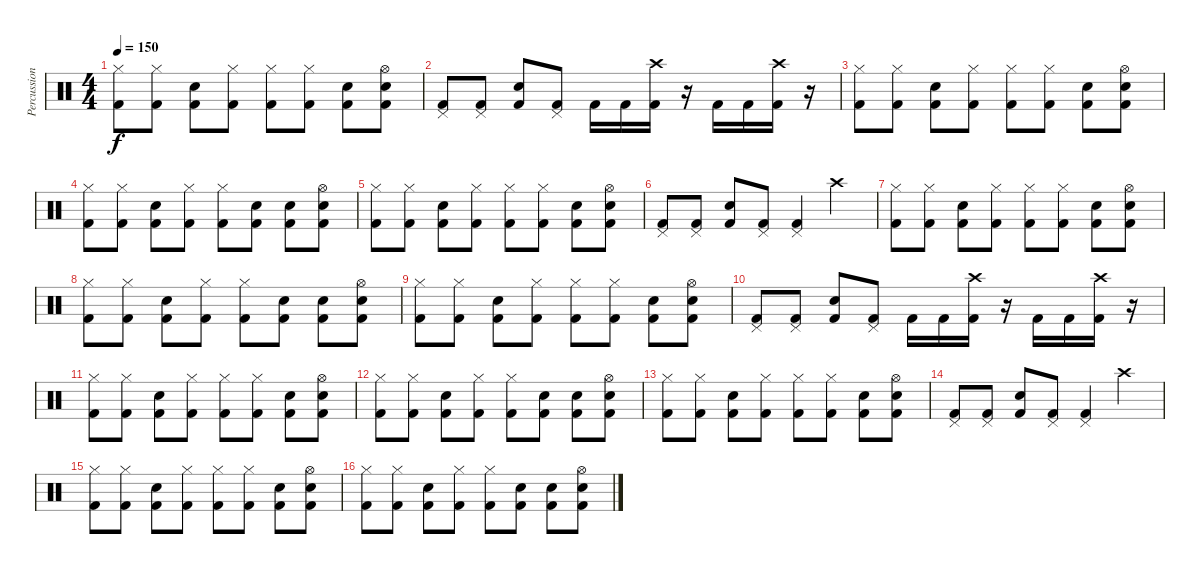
\track ("Percussion" "Percussion") {instrument percussion}
\staff {score}
\articulation defaults
\ts (4 4)
\tempo 150
\clef neutral
\ks c
("Hi-Hat (closed)" "Kick (hit) 2").8{dy f} ("Hi-Hat (closed)" "Kick (hit) 2").8 ("Snare (hit) 2" "Kick (hit) 2").8 ("Hi-Hat (closed)" "Kick (hit) 2").8 ("Hi-Hat (closed)" "Kick (hit) 2").8 ("Hi-Hat (closed)" "Kick (hit) 2").8 ("Snare (hit) 2" "Kick (hit) 2").8 ("Hi-Hat (open)" "Snare (hit) 2" "Kick (hit) 2").8 |
("Pedal Hi-Hat (hit)" "Kick (hit) 2").8 ("Pedal Hi-Hat (hit)" "Kick (hit) 2").8 ("Snare (hit) 2" "Kick (hit) 2").8 ("Pedal Hi-Hat (hit)" "Kick (hit) 2").8 "Kick (hit) 2".16 "Kick (hit) 2".16 ("Crash high (hit)" "Kick (hit) 2").16 r.16 "Kick (hit) 2".16 "Kick (hit) 2".16 ("Crash high (hit)" "Kick (hit) 2").16 r.16 |
("Hi-Hat (closed)" "Kick (hit) 2").8 ("Hi-Hat (closed)" "Kick (hit) 2").8 ("Snare (hit) 2" "Kick (hit) 2").8 ("Hi-Hat (closed)" "Kick (hit) 2").8 ("Hi-Hat (closed)" "Kick (hit) 2").8 ("Hi-Hat (closed)" "Kick (hit) 2").8 ("Snare (hit) 2" "Kick (hit) 2").8 ("Hi-Hat (open)" "Snare (hit) 2" "Kick (hit) 2").8 |
("Hi-Hat (closed)" "Kick (hit) 2").8 ("Hi-Hat (closed)" "Kick (hit) 2").8 ("Snare (hit) 2" "Kick (hit) 2").8 ("Hi-Hat (closed)" "Kick (hit) 2").8 ("Hi-Hat (closed)" "Kick (hit) 2").8 ("Snare (hit) 2" "Kick (hit) 2").8 ("Snare (hit) 2" "Kick (hit) 2").8 ("Hi-Hat (open)" "Snare (hit) 2" "Kick (hit) 2").8 |
("Hi-Hat (closed)" "Kick (hit) 2").8 ("Hi-Hat (closed)" "Kick (hit) 2").8 ("Snare (hit) 2" "Kick (hit) 2").8 ("Hi-Hat (closed)" "Kick (hit) 2").8 ("Hi-Hat (closed)" "Kick (hit) 2").8 ("Hi-Hat (closed)" "Kick (hit) 2").8 ("Snare (hit) 2" "Kick (hit) 2").8 ("Hi-Hat (open)" "Snare (hit) 2" "Kick (hit) 2").8 |
("Pedal Hi-Hat (hit)" "Kick (hit) 2").8 ("Pedal Hi-Hat (hit)" "Kick (hit) 2").8 ("Snare (hit) 2" "Kick (hit) 2").8 ("Pedal Hi-Hat (hit)" "Kick (hit) 2").8 ("Pedal Hi-Hat (hit)" "Kick (hit) 2").4 "Crash high (hit)".4 |
("Hi-Hat (closed)" "Kick (hit) 2").8 ("Hi-Hat (closed)" "Kick (hit) 2").8 ("Snare (hit) 2" "Kick (hit) 2").8 ("Hi-Hat (closed)" "Kick (hit) 2").8 ("Hi-Hat (closed)" "Kick (hit) 2").8 ("Hi-Hat (closed)" "Kick (hit) 2").8 ("Snare (hit) 2" "Kick (hit) 2").8 ("Hi-Hat (open)" "Snare (hit) 2" "Kick (hit) 2").8 |
("Hi-Hat (closed)" "Kick (hit) 2").8 ("Hi-Hat (closed)" "Kick (hit) 2").8 ("Snare (hit) 2" "Kick (hit) 2").8 ("Hi-Hat (closed)" "Kick (hit) 2").8 ("Hi-Hat (closed)" "Kick (hit) 2").8 ("Snare (hit) 2" "Kick (hit) 2").8 ("Snare (hit) 2" "Kick (hit) 2").8 ("Hi-Hat (open)" "Snare (hit) 2" "Kick (hit) 2").8 |
("Hi-Hat (closed)" "Kick (hit) 2").8 ("Hi-Hat (closed)" "Kick (hit) 2").8 ("Snare (hit) 2" "Kick (hit) 2").8 ("Hi-Hat (closed)" "Kick (hit) 2").8 ("Hi-Hat (closed)" "Kick (hit) 2").8 ("Hi-Hat (closed)" "Kick (hit) 2").8 ("Snare (hit) 2" "Kick (hit) 2").8 ("Hi-Hat (open)" "Snare (hit) 2" "Kick (hit) 2").8 |
("Pedal Hi-Hat (hit)" "Kick (hit) 2").8 ("Pedal Hi-Hat (hit)" "Kick (hit) 2").8 ("Snare (hit) 2" "Kick (hit) 2").8 ("Pedal Hi-Hat (hit)" "Kick (hit) 2").8 "Kick (hit) 2".16 "Kick (hit) 2".16 ("Crash high (hit)" "Kick (hit) 2").16 r.16 "Kick (hit) 2".16 "Kick (hit) 2".16 ("Crash high (hit)" "Kick (hit) 2").16 r.16 |
("Hi-Hat (closed)" "Kick (hit) 2").8{volume 10} ("Hi-Hat (closed)" "Kick (hit) 2").8 ("Snare (hit) 2" "Kick (hit) 2").8 ("Hi-Hat (closed)" "Kick (hit) 2").8 ("Hi-Hat (closed)" "Kick (hit) 2").8 ("Hi-Hat (closed)" "Kick (hit) 2").8 ("Snare (hit) 2" "Kick (hit) 2").8 ("Hi-Hat (open)" "Snare (hit) 2" "Kick (hit) 2").8 |
("Hi-Hat (closed)" "Kick (hit) 2").8 ("Hi-Hat (closed)" "Kick (hit) 2").8 ("Snare (hit) 2" "Kick (hit) 2").8 ("Hi-Hat (closed)" "Kick (hit) 2").8 ("Hi-Hat (closed)" "Kick (hit) 2").8 ("Snare (hit) 2" "Kick (hit) 2").8 ("Snare (hit) 2" "Kick (hit) 2").8 ("Hi-Hat (open)" "Snare (hit) 2" "Kick (hit) 2").8 |
("Hi-Hat (closed)" "Kick (hit) 2").8{volume 7} ("Hi-Hat (closed)" "Kick (hit) 2").8 ("Snare (hit) 2" "Kick (hit) 2").8 ("Hi-Hat (closed)" "Kick (hit) 2").8 ("Hi-Hat (closed)" "Kick (hit) 2").8 ("Hi-Hat (closed)" "Kick (hit) 2").8 ("Snare (hit) 2" "Kick (hit) 2").8 ("Hi-Hat (open)" "Snare (hit) 2" "Kick (hit) 2").8 |
("Pedal Hi-Hat (hit)" "Kick (hit) 2").8 ("Pedal Hi-Hat (hit)" "Kick (hit) 2").8 ("Snare (hit) 2" "Kick (hit) 2").8 ("Pedal Hi-Hat (hit)" "Kick (hit) 2").8 ("Pedal Hi-Hat (hit)" "Kick (hit) 2").4 "Crash high (hit)".4 |
("Hi-Hat (closed)" "Kick (hit) 2").8{volume 2} ("Hi-Hat (closed)" "Kick (hit) 2").8 ("Snare (hit) 2" "Kick (hit) 2").8 ("Hi-Hat (closed)" "Kick (hit) 2").8 ("Hi-Hat (closed)" "Kick (hit) 2").8 ("Hi-Hat (closed)" "Kick (hit) 2").8 ("Snare (hit) 2" "Kick (hit) 2").8 ("Hi-Hat (open)" "Snare (hit) 2" "Kick (hit) 2").8 |
("Hi-Hat (closed)" "Kick (hit) 2").8 ("Hi-Hat (closed)" "Kick (hit) 2").8 ("Snare (hit) 2" "Kick (hit) 2").8 ("Hi-Hat (closed)" "Kick (hit) 2").8 ("Hi-Hat (closed)" "Kick (hit) 2").8 ("Snare (hit) 2" "Kick (hit) 2").8 ("Snare (hit) 2" "Kick (hit) 2").8 ("Hi-Hat (open)" "Snare (hit) 2" "Kick (hit) 2").8
